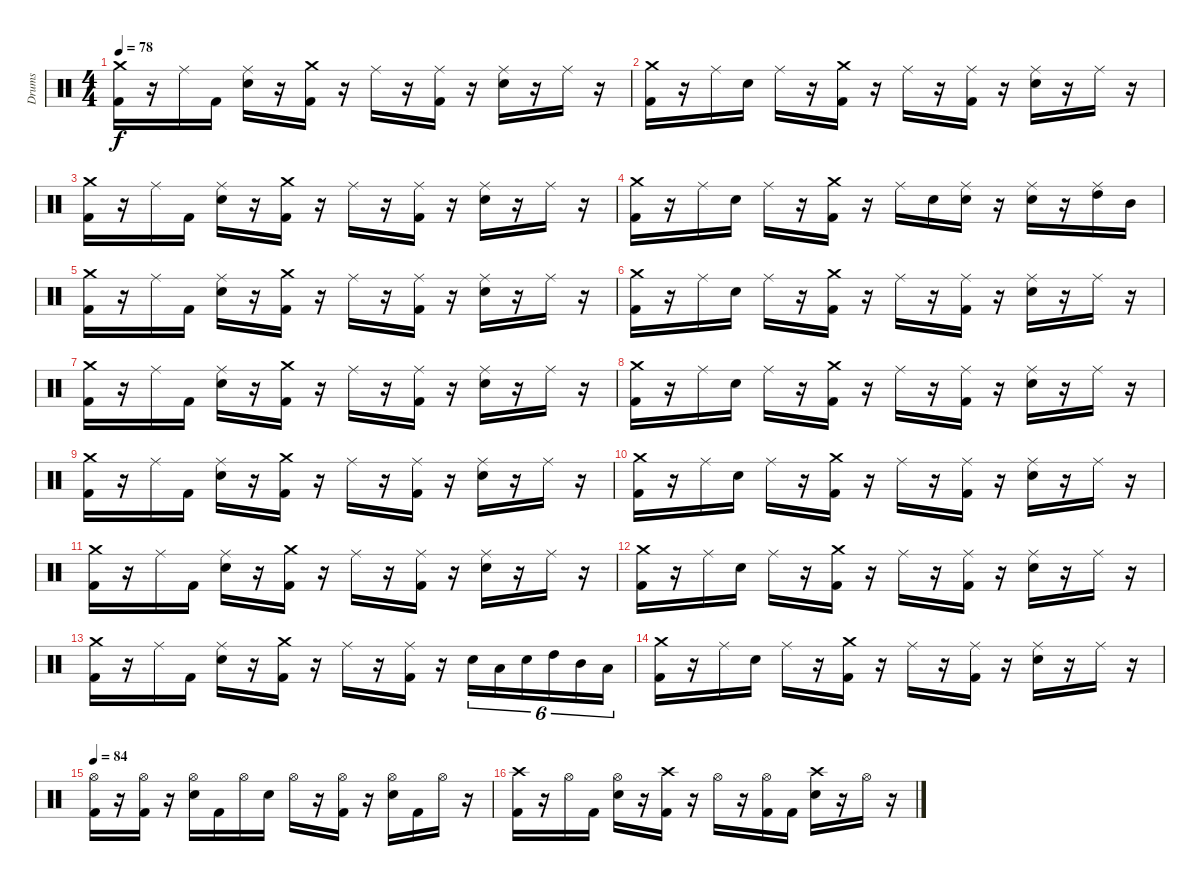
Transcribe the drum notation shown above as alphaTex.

\track ("Drums" "Drums") {instrument percussion}
\staff {score}
\articulation defaults
\ts (4 4)
\tempo 78
\clef neutral
\ks c
("Crash medium (hit)" "Kick (hit) 2").16{dy f} r.16 "Ride (middle)".16 "Kick (hit) 2".16 ("Ride (middle)" "Snare (hit) 2").16 r.16 ("Crash medium (hit)" "Kick (hit) 2").16 r.16 "Ride (middle)".16 r.16 ("Ride (middle)" "Kick (hit) 2").16 r.16 ("Ride (middle)" "Snare (hit) 2").16 r.16 "Ride (middle)".16 r.16 |
("Crash medium (hit)" "Kick (hit) 2").16 r.16 "Ride (middle)".16 "Snare (hit) 2".16 "Ride (middle)".16 r.16 ("Crash medium (hit)" "Kick (hit) 2").16 r.16 "Ride (middle)".16 r.16 ("Ride (middle)" "Kick (hit) 2").16 r.16 ("Ride (middle)" "Snare (hit) 2").16 r.16 "Ride (middle)".16 r.16 |
("Crash medium (hit)" "Kick (hit) 2").16 r.16 "Ride (middle)".16 "Kick (hit) 2".16 ("Ride (middle)" "Snare (hit) 2").16 r.16 ("Crash medium (hit)" "Kick (hit) 2").16 r.16 "Ride (middle)".16 r.16 ("Ride (middle)" "Kick (hit) 2").16 r.16 ("Ride (middle)" "Snare (hit) 2").16 r.16 "Ride (middle)".16 r.16 |
("Crash medium (hit)" "Kick (hit) 2").16 r.16 "Ride (middle)".16 "Snare (hit) 2".16 "Ride (middle)".16 r.16 ("Crash medium (hit)" "Kick (hit) 2").16 r.16 "Ride (middle)".16 "Snare (hit) 2".16 ("Ride (middle)" "Snare (hit) 2").16 r.16 ("Ride (middle)" "Snare (hit) 2").16 r.16 ("Ride (middle)" "High Tom (hit)").16 "Mid Tom (hit)".16 |
("Crash medium (hit)" "Kick (hit) 2").16 r.16 "Ride (middle)".16 "Kick (hit) 2".16 ("Ride (middle)" "Snare (hit) 2").16 r.16 ("Crash medium (hit)" "Kick (hit) 2").16 r.16 "Ride (middle)".16 r.16 ("Ride (middle)" "Kick (hit) 2").16 r.16 ("Ride (middle)" "Snare (hit) 2").16 r.16 "Ride (middle)".16 r.16 |
("Crash medium (hit)" "Kick (hit) 2").16 r.16 "Ride (middle)".16 "Snare (hit) 2".16 "Ride (middle)".16 r.16 ("Crash medium (hit)" "Kick (hit) 2").16 r.16 "Ride (middle)".16 r.16 ("Ride (middle)" "Kick (hit) 2").16 r.16 ("Ride (middle)" "Snare (hit) 2").16 r.16 "Ride (middle)".16 r.16 |
("Crash medium (hit)" "Kick (hit) 2").16 r.16 "Ride (middle)".16 "Kick (hit) 2".16 ("Ride (middle)" "Snare (hit) 2").16 r.16 ("Crash medium (hit)" "Kick (hit) 2").16 r.16 "Ride (middle)".16 r.16 ("Ride (middle)" "Kick (hit) 2").16 r.16 ("Ride (middle)" "Snare (hit) 2").16 r.16 "Ride (middle)".16 r.16 |
("Crash medium (hit)" "Kick (hit) 2").16 r.16 "Ride (middle)".16 "Snare (hit) 2".16 "Ride (middle)".16 r.16 ("Crash medium (hit)" "Kick (hit) 2").16 r.16 "Ride (middle)".16 r.16 ("Ride (middle)" "Kick (hit) 2").16 r.16 ("Ride (middle)" "Snare (hit) 2").16 r.16 "Ride (middle)".16 r.16 |
("Crash medium (hit)" "Kick (hit) 2").16 r.16 "Ride (middle)".16 "Kick (hit) 2".16 ("Ride (middle)" "Snare (hit) 2").16 r.16 ("Crash medium (hit)" "Kick (hit) 2").16 r.16 "Ride (middle)".16 r.16 ("Ride (middle)" "Kick (hit) 2").16 r.16 ("Ride (middle)" "Snare (hit) 2").16 r.16 "Ride (middle)".16 r.16 |
("Crash medium (hit)" "Kick (hit) 2").16 r.16 "Ride (middle)".16 "Snare (hit) 2".16 "Ride (middle)".16 r.16 ("Crash medium (hit)" "Kick (hit) 2").16 r.16 "Ride (middle)".16 r.16 ("Ride (middle)" "Kick (hit) 2").16 r.16 ("Ride (middle)" "Snare (hit) 2").16 r.16 "Ride (middle)".16 r.16 |
("Crash medium (hit)" "Kick (hit) 2").16 r.16 "Ride (middle)".16 "Kick (hit) 2".16 ("Ride (middle)" "Snare (hit) 2").16 r.16 ("Crash medium (hit)" "Kick (hit) 2").16 r.16 "Ride (middle)".16 r.16 ("Ride (middle)" "Kick (hit) 2").16 r.16 ("Ride (middle)" "Snare (hit) 2").16 r.16 "Ride (middle)".16 r.16 |
("Crash medium (hit)" "Kick (hit) 2").16 r.16 "Ride (middle)".16 "Snare (hit) 2".16 "Ride (middle)".16 r.16 ("Crash medium (hit)" "Kick (hit) 2").16 r.16 "Ride (middle)".16 r.16 ("Ride (middle)" "Kick (hit) 2").16 r.16 ("Ride (middle)" "Snare (hit) 2").16 r.16 "Ride (middle)".16 r.16 |
("Crash medium (hit)" "Kick (hit) 2").16 r.16 "Ride (middle)".16 "Kick (hit) 2".16 ("Ride (middle)" "Snare (hit) 2").16 r.16 ("Crash medium (hit)" "Kick (hit) 2").16 r.16 "Ride (middle)".16 r.16 ("Ride (middle)" "Kick (hit) 2").16 r.16 "Snare (hit) 2".16{tu (6 4)} "Low Floor Tom (hit)".16{tu (6 4)} "Snare (hit) 2".16{tu (6 4)} "High Tom (hit)".16{tu (6 4)} "Mid Tom (hit)".16{tu (6 4)} "Low Floor Tom (hit)".16{tu (6 4)} |
("Crash medium (hit)" "Kick (hit) 2").16 r.16 "Ride (middle)".16 "Snare (hit) 2".16 "Ride (middle)".16 r.16 ("Crash medium (hit)" "Kick (hit) 2").16 r.16 "Ride (middle)".16 r.16 ("Ride (middle)" "Kick (hit) 2").16 r.16 ("Ride (middle)" "Snare (hit) 2").16 r.16 "Ride (middle)".16 r.16 |
\tempo 84
("Hi-Hat (open)" "Kick (hit) 2").16 r.16 ("Hi-Hat (open)" "Kick (hit) 2").16 r.16 ("Hi-Hat (open)" "Snare (hit) 2").16 "Kick (hit) 2".16 "Hi-Hat (open)".16 "Snare (hit) 2".16 "Hi-Hat (open)".16 r.16 ("Hi-Hat (open)" "Kick (hit) 2").16 r.16 ("Hi-Hat (open)" "Snare (hit) 2").16 "Kick (hit) 2".16 "Hi-Hat (open)".16 r.16 |
("Crash high (hit)" "Kick (hit) 2").16 r.16 "Hi-Hat (open)".16 "Kick (hit) 2".16 ("Hi-Hat (open)" "Snare (hit) 2").16 r.16 ("Crash high (hit)" "Kick (hit) 2").16 r.16 "Hi-Hat (open)".16 r.16 ("Hi-Hat (open)" "Kick (hit) 2").16 "Kick (hit) 2".16 ("Crash high (hit)" "Snare (hit) 2").16 r.16 "Hi-Hat (open)".16 r.16
